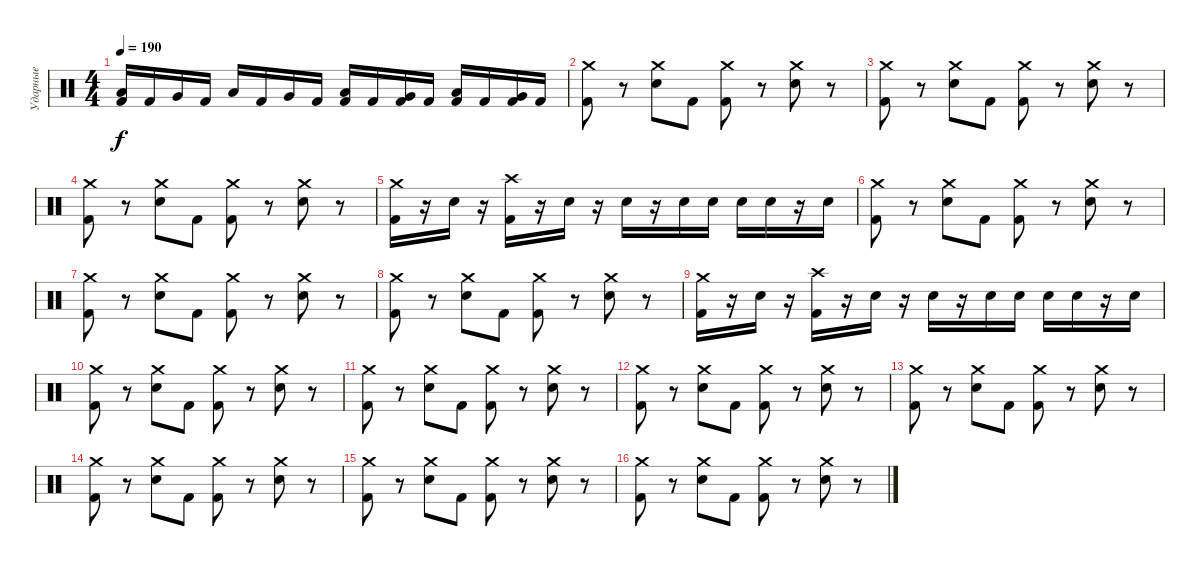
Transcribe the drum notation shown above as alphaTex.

\track ("Ударные" "Ударные") {instrument percussion}
\staff {score}
\articulation defaults
\ts (4 4)
\tempo 190
\clef neutral
\ks c
("Low Tom (hit)" "Kick (hit) 2").16{dy f} "Kick (hit) 2".16 "Very Low Tom (hit)".16 "Kick (hit) 2".16 "Low Tom (hit)".16 "Kick (hit) 2".16 "Very Low Tom (hit)".16 "Kick (hit) 2".16 ("Low Tom (hit)" "Kick (hit) 2").16 "Kick (hit) 2".16 ("Very Low Tom (hit)" "Kick (hit) 2").16 "Kick (hit) 2".16 ("Low Tom (hit)" "Kick (hit) 2").16 "Kick (hit) 2".16 ("Very Low Tom (hit)" "Kick (hit) 2").16 "Kick (hit) 2".16 |
("Crash medium (hit)" "Kick (hit) 2").8 r.8 ("Crash medium (hit)" "Snare (hit) 2").8 "Kick (hit) 2".8 ("Crash medium (hit)" "Kick (hit) 2").8 r.8 ("Crash medium (hit)" "Snare (hit) 2").8 r.8 |
("Crash medium (hit)" "Kick (hit) 2").8 r.8 ("Crash medium (hit)" "Snare (hit) 2").8 "Kick (hit) 2".8 ("Crash medium (hit)" "Kick (hit) 2").8 r.8 ("Crash medium (hit)" "Snare (hit) 2").8 r.8 |
("Crash medium (hit)" "Kick (hit) 2").8 r.8 ("Crash medium (hit)" "Snare (hit) 2").8 "Kick (hit) 2".8 ("Crash medium (hit)" "Kick (hit) 2").8 r.8 ("Crash medium (hit)" "Snare (hit) 2").8 r.8 |
("Crash medium (hit)" "Kick (hit) 2").16 r.16 "Snare (hit) 2".16 r.16 ("Crash high (hit)" "Kick (hit) 2").16 r.16 "Snare (hit) 2".16 r.16 "Snare (hit) 2".16 r.16 "Snare (hit) 2".16 "Snare (hit) 2".16 "Snare (hit) 2".16 "Snare (hit) 2".16 r.16 "Snare (hit) 2".16 |
("Crash medium (hit)" "Kick (hit) 2").8 r.8 ("Crash medium (hit)" "Snare (hit) 2").8 "Kick (hit) 2".8 ("Crash medium (hit)" "Kick (hit) 2").8 r.8 ("Crash medium (hit)" "Snare (hit) 2").8 r.8 |
("Crash medium (hit)" "Kick (hit) 2").8 r.8 ("Crash medium (hit)" "Snare (hit) 2").8 "Kick (hit) 2".8 ("Crash medium (hit)" "Kick (hit) 2").8 r.8 ("Crash medium (hit)" "Snare (hit) 2").8 r.8 |
("Crash medium (hit)" "Kick (hit) 2").8 r.8 ("Crash medium (hit)" "Snare (hit) 2").8 "Kick (hit) 2".8 ("Crash medium (hit)" "Kick (hit) 2").8 r.8 ("Crash medium (hit)" "Snare (hit) 2").8 r.8 |
("Crash medium (hit)" "Kick (hit) 2").16 r.16 "Snare (hit) 2".16 r.16 ("Crash high (hit)" "Kick (hit) 2").16 r.16 "Snare (hit) 2".16 r.16 "Snare (hit) 2".16 r.16 "Snare (hit) 2".16 "Snare (hit) 2".16 "Snare (hit) 2".16 "Snare (hit) 2".16 r.16 "Snare (hit) 2".16 |
("Crash medium (hit)" "Kick (hit) 2").8 r.8 ("Crash medium (hit)" "Snare (hit) 2").8 "Kick (hit) 2".8 ("Crash medium (hit)" "Kick (hit) 2").8 r.8 ("Crash medium (hit)" "Snare (hit) 2").8 r.8 |
("Crash medium (hit)" "Kick (hit) 2").8 r.8 ("Crash medium (hit)" "Snare (hit) 2").8 "Kick (hit) 2".8 ("Crash medium (hit)" "Kick (hit) 2").8 r.8 ("Crash medium (hit)" "Snare (hit) 2").8 r.8 |
("Crash medium (hit)" "Kick (hit) 2").8 r.8 ("Crash medium (hit)" "Snare (hit) 2").8 "Kick (hit) 2".8 ("Crash medium (hit)" "Kick (hit) 2").8 r.8 ("Crash medium (hit)" "Snare (hit) 2").8 r.8 |
("Crash medium (hit)" "Kick (hit) 2").8 r.8 ("Crash medium (hit)" "Snare (hit) 2").8 "Kick (hit) 2".8 ("Crash medium (hit)" "Kick (hit) 2").8 r.8 ("Crash medium (hit)" "Snare (hit) 2").8 r.8 |
("Crash medium (hit)" "Kick (hit) 2").8 r.8 ("Crash medium (hit)" "Snare (hit) 2").8 "Kick (hit) 2".8 ("Crash medium (hit)" "Kick (hit) 2").8 r.8 ("Crash medium (hit)" "Snare (hit) 2").8 r.8 |
("Crash medium (hit)" "Kick (hit) 2").8 r.8 ("Crash medium (hit)" "Snare (hit) 2").8 "Kick (hit) 2".8 ("Crash medium (hit)" "Kick (hit) 2").8 r.8 ("Crash medium (hit)" "Snare (hit) 2").8 r.8 |
("Crash medium (hit)" "Kick (hit) 2").8 r.8 ("Crash medium (hit)" "Snare (hit) 2").8 "Kick (hit) 2".8 ("Crash medium (hit)" "Kick (hit) 2").8 r.8 ("Crash medium (hit)" "Snare (hit) 2").8 r.8
